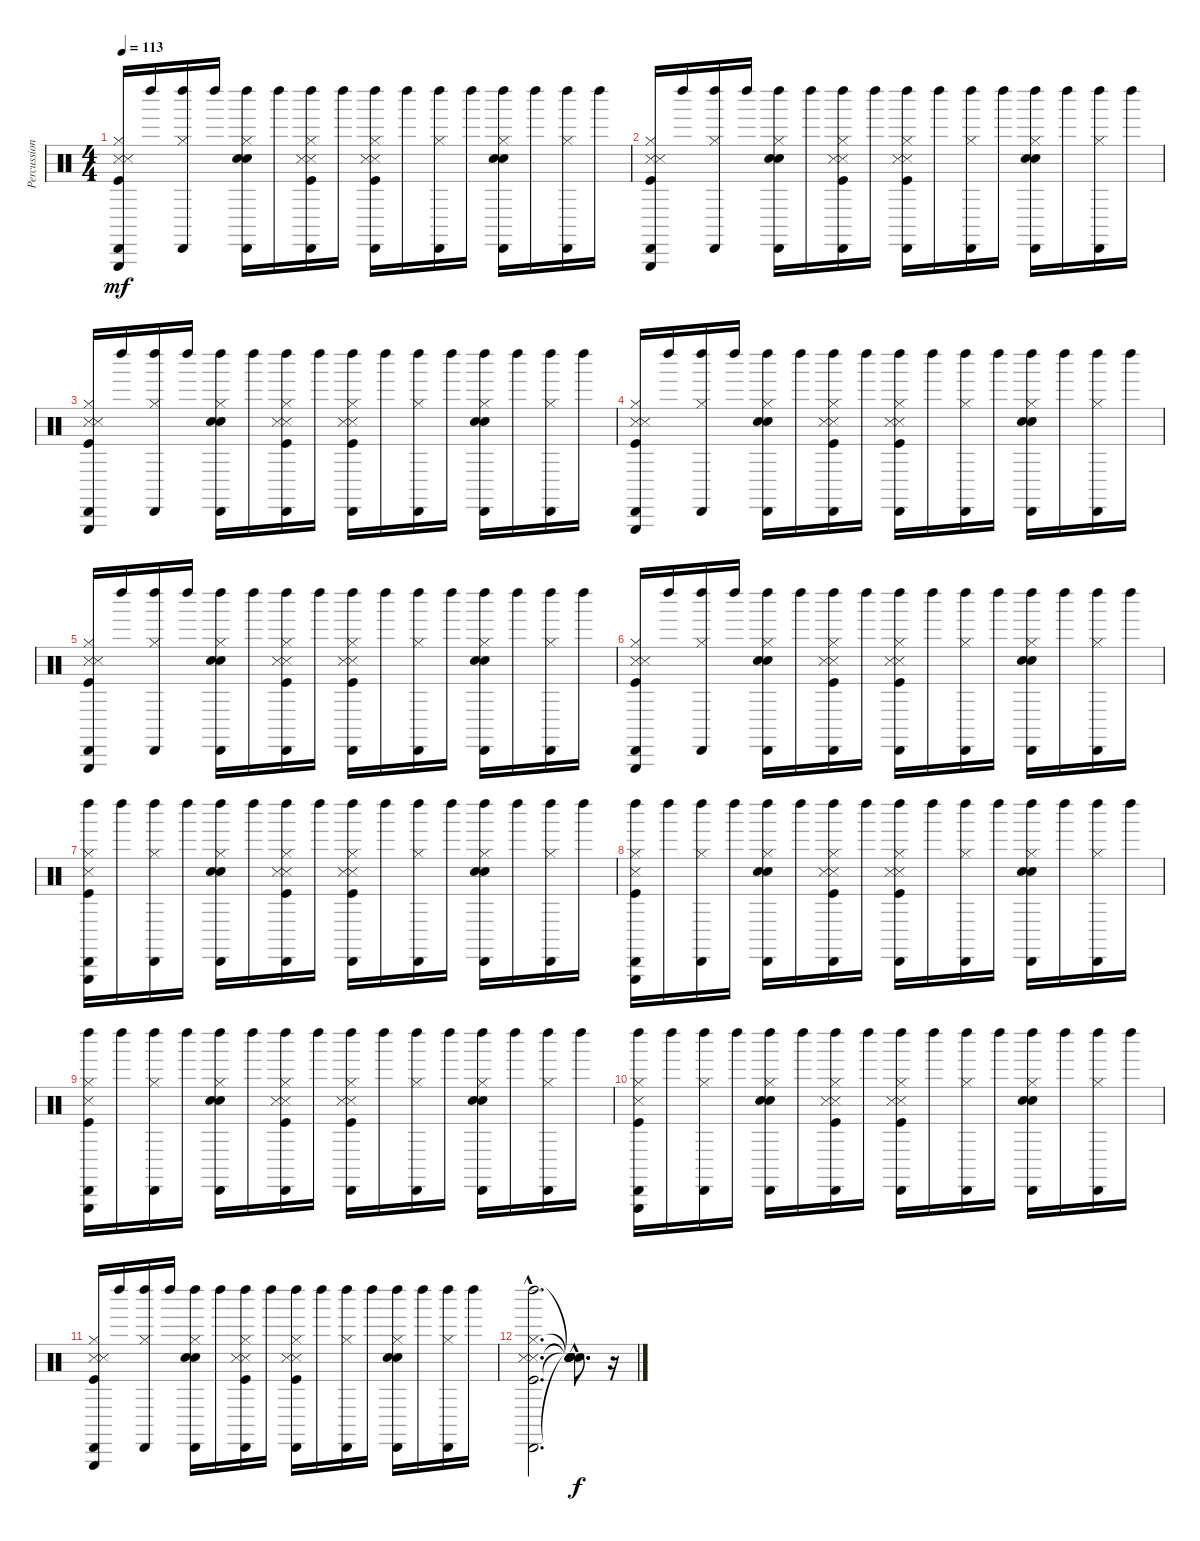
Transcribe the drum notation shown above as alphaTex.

\track ("Percussion" "Percussion") {instrument percussion}
\staff {score}
\articulation defaults
\ts (4 4)
\tempo 113
\clef neutral
\ks c
("Metronome (hit)" "Kick (hit)" "Snare (side stick) 3" "Hi-Hat (closed)" "Triangle (hit)" "Cabasa (hit)").16{dy mf} "Left Maraca (hit)".16 ("Hi-Hat (closed)" "Cabasa (hit)" "Left Maraca (hit)").16 "Left Maraca (hit)".16 ("Hand Clap (hit)" "Electric Snare (hit)" "Hi-Hat (closed)" "Cabasa (hit)" "Left Maraca (hit)").16 "Left Maraca (hit)".16 ("Snare (side stick) 3" "Kick (hit)" "Metronome (hit)" "Hi-Hat (closed)" "Cabasa (hit)" "Left Maraca (hit)").16 "Left Maraca (hit)".16 ("Metronome (hit)" "Kick (hit)" "Snare (side stick) 3" "Hi-Hat (closed)" "Cabasa (hit)" "Left Maraca (hit)").16 "Left Maraca (hit)".16 ("Hi-Hat (closed)" "Cabasa (hit)" "Left Maraca (hit)").16 "Left Maraca (hit)".16 ("Hand Clap (hit)" "Electric Snare (hit)" "Hi-Hat (closed)" "Cabasa (hit)" "Left Maraca (hit)").16 "Left Maraca (hit)".16 ("Hi-Hat (closed)" "Cabasa (hit)" "Left Maraca (hit)").16 "Left Maraca (hit)".16 |
("Metronome (hit)" "Kick (hit)" "Snare (side stick) 3" "Hi-Hat (closed)" "Triangle (hit)" "Cabasa (hit)").16 "Left Maraca (hit)".16 ("Hi-Hat (closed)" "Cabasa (hit)" "Left Maraca (hit)").16 "Left Maraca (hit)".16 ("Hand Clap (hit)" "Electric Snare (hit)" "Hi-Hat (closed)" "Cabasa (hit)" "Left Maraca (hit)").16 "Left Maraca (hit)".16 ("Snare (side stick) 3" "Kick (hit)" "Metronome (hit)" "Hi-Hat (closed)" "Cabasa (hit)" "Left Maraca (hit)").16 "Left Maraca (hit)".16 ("Metronome (hit)" "Kick (hit)" "Snare (side stick) 3" "Hi-Hat (closed)" "Cabasa (hit)" "Left Maraca (hit)").16 "Left Maraca (hit)".16 ("Hi-Hat (closed)" "Cabasa (hit)" "Left Maraca (hit)").16 "Left Maraca (hit)".16 ("Hand Clap (hit)" "Electric Snare (hit)" "Hi-Hat (closed)" "Cabasa (hit)" "Left Maraca (hit)").16 "Left Maraca (hit)".16 ("Hi-Hat (closed)" "Cabasa (hit)" "Left Maraca (hit)").16 "Left Maraca (hit)".16 |
("Metronome (hit)" "Kick (hit)" "Snare (side stick) 3" "Hi-Hat (closed)" "Triangle (hit)" "Cabasa (hit)").16 "Left Maraca (hit)".16 ("Hi-Hat (closed)" "Cabasa (hit)" "Left Maraca (hit)").16 "Left Maraca (hit)".16 ("Hand Clap (hit)" "Electric Snare (hit)" "Hi-Hat (closed)" "Cabasa (hit)" "Left Maraca (hit)").16 "Left Maraca (hit)".16 ("Snare (side stick) 3" "Kick (hit)" "Metronome (hit)" "Hi-Hat (closed)" "Cabasa (hit)" "Left Maraca (hit)").16 "Left Maraca (hit)".16 ("Metronome (hit)" "Kick (hit)" "Snare (side stick) 3" "Hi-Hat (closed)" "Cabasa (hit)" "Left Maraca (hit)").16 "Left Maraca (hit)".16 ("Hi-Hat (closed)" "Cabasa (hit)" "Left Maraca (hit)").16 "Left Maraca (hit)".16 ("Hand Clap (hit)" "Electric Snare (hit)" "Hi-Hat (closed)" "Cabasa (hit)" "Left Maraca (hit)").16 "Left Maraca (hit)".16 ("Hi-Hat (closed)" "Cabasa (hit)" "Left Maraca (hit)").16 "Left Maraca (hit)".16 |
("Metronome (hit)" "Kick (hit)" "Snare (side stick) 3" "Hi-Hat (closed)" "Triangle (hit)" "Cabasa (hit)").16 "Left Maraca (hit)".16 ("Hi-Hat (closed)" "Cabasa (hit)" "Left Maraca (hit)").16 "Left Maraca (hit)".16 ("Hand Clap (hit)" "Electric Snare (hit)" "Hi-Hat (closed)" "Cabasa (hit)" "Left Maraca (hit)").16 "Left Maraca (hit)".16 ("Snare (side stick) 3" "Kick (hit)" "Metronome (hit)" "Hi-Hat (closed)" "Cabasa (hit)" "Left Maraca (hit)").16 "Left Maraca (hit)".16 ("Metronome (hit)" "Kick (hit)" "Snare (side stick) 3" "Hi-Hat (closed)" "Cabasa (hit)" "Left Maraca (hit)").16 "Left Maraca (hit)".16 ("Hi-Hat (closed)" "Cabasa (hit)" "Left Maraca (hit)").16 "Left Maraca (hit)".16 ("Hand Clap (hit)" "Electric Snare (hit)" "Hi-Hat (closed)" "Cabasa (hit)" "Left Maraca (hit)").16 "Left Maraca (hit)".16 ("Hi-Hat (closed)" "Cabasa (hit)" "Left Maraca (hit)").16 "Left Maraca (hit)".16 |
("Metronome (hit)" "Kick (hit)" "Snare (side stick) 3" "Hi-Hat (closed)" "Triangle (hit)" "Cabasa (hit)").16 "Left Maraca (hit)".16 ("Hi-Hat (closed)" "Cabasa (hit)" "Left Maraca (hit)").16 "Left Maraca (hit)".16 ("Hand Clap (hit)" "Electric Snare (hit)" "Hi-Hat (closed)" "Cabasa (hit)" "Left Maraca (hit)").16 "Left Maraca (hit)".16 ("Snare (side stick) 3" "Kick (hit)" "Metronome (hit)" "Hi-Hat (closed)" "Cabasa (hit)" "Left Maraca (hit)").16 "Left Maraca (hit)".16 ("Metronome (hit)" "Kick (hit)" "Snare (side stick) 3" "Hi-Hat (closed)" "Cabasa (hit)" "Left Maraca (hit)").16 "Left Maraca (hit)".16 ("Hi-Hat (closed)" "Cabasa (hit)" "Left Maraca (hit)").16 "Left Maraca (hit)".16 ("Hand Clap (hit)" "Electric Snare (hit)" "Hi-Hat (closed)" "Cabasa (hit)" "Left Maraca (hit)").16 "Left Maraca (hit)".16 ("Hi-Hat (closed)" "Cabasa (hit)" "Left Maraca (hit)").16 "Left Maraca (hit)".16 |
("Metronome (hit)" "Kick (hit)" "Snare (side stick) 3" "Hi-Hat (closed)" "Triangle (hit)" "Cabasa (hit)").16 "Left Maraca (hit)".16 ("Hi-Hat (closed)" "Cabasa (hit)" "Left Maraca (hit)").16 "Left Maraca (hit)".16 ("Hand Clap (hit)" "Electric Snare (hit)" "Hi-Hat (closed)" "Cabasa (hit)" "Left Maraca (hit)").16 "Left Maraca (hit)".16 ("Snare (side stick) 3" "Kick (hit)" "Metronome (hit)" "Hi-Hat (closed)" "Cabasa (hit)" "Left Maraca (hit)").16 "Left Maraca (hit)".16 ("Metronome (hit)" "Kick (hit)" "Snare (side stick) 3" "Hi-Hat (closed)" "Cabasa (hit)" "Left Maraca (hit)").16 "Left Maraca (hit)".16 ("Hi-Hat (closed)" "Cabasa (hit)" "Left Maraca (hit)").16 "Left Maraca (hit)".16 ("Hand Clap (hit)" "Electric Snare (hit)" "Hi-Hat (closed)" "Cabasa (hit)" "Left Maraca (hit)").16 "Left Maraca (hit)".16 ("Hi-Hat (closed)" "Cabasa (hit)" "Left Maraca (hit)").16 "Left Maraca (hit)".16 |
("Left Maraca (hit)" "Cabasa (hit)" "Triangle (hit)" "Hi-Hat (closed)" "Snare (side stick) 3" "Kick (hit)").16 "Left Maraca (hit)".16 ("Left Maraca (hit)" "Cabasa (hit)" "Hi-Hat (closed)").16 "Left Maraca (hit)".16 ("Left Maraca (hit)" "Cabasa (hit)" "Hi-Hat (closed)" "Electric Snare (hit)" "Hand Clap (hit)").16 "Left Maraca (hit)".16 ("Left Maraca (hit)" "Cabasa (hit)" "Hi-Hat (closed)" "Metronome (hit)" "Kick (hit)" "Snare (side stick) 3").16 "Left Maraca (hit)".16 ("Left Maraca (hit)" "Cabasa (hit)" "Hi-Hat (closed)" "Snare (side stick) 3" "Kick (hit)" "Metronome (hit)").16 "Left Maraca (hit)".16 ("Left Maraca (hit)" "Cabasa (hit)" "Hi-Hat (closed)").16 "Left Maraca (hit)".16 ("Left Maraca (hit)" "Cabasa (hit)" "Hi-Hat (closed)" "Electric Snare (hit)" "Hand Clap (hit)").16 "Left Maraca (hit)".16 ("Left Maraca (hit)" "Cabasa (hit)" "Hi-Hat (closed)").16 "Left Maraca (hit)".16 |
("Left Maraca (hit)" "Cabasa (hit)" "Triangle (hit)" "Hi-Hat (closed)" "Snare (side stick) 3" "Kick (hit)").16 "Left Maraca (hit)".16 ("Left Maraca (hit)" "Cabasa (hit)" "Hi-Hat (closed)").16 "Left Maraca (hit)".16 ("Left Maraca (hit)" "Cabasa (hit)" "Hi-Hat (closed)" "Electric Snare (hit)" "Hand Clap (hit)").16 "Left Maraca (hit)".16 ("Left Maraca (hit)" "Cabasa (hit)" "Hi-Hat (closed)" "Metronome (hit)" "Kick (hit)" "Snare (side stick) 3").16 "Left Maraca (hit)".16 ("Left Maraca (hit)" "Cabasa (hit)" "Hi-Hat (closed)" "Snare (side stick) 3" "Kick (hit)" "Metronome (hit)").16 "Left Maraca (hit)".16 ("Left Maraca (hit)" "Cabasa (hit)" "Hi-Hat (closed)").16 "Left Maraca (hit)".16 ("Left Maraca (hit)" "Cabasa (hit)" "Hi-Hat (closed)" "Electric Snare (hit)" "Hand Clap (hit)").16 "Left Maraca (hit)".16 ("Left Maraca (hit)" "Cabasa (hit)" "Hi-Hat (closed)").16 "Left Maraca (hit)".16 |
("Left Maraca (hit)" "Cabasa (hit)" "Triangle (hit)" "Hi-Hat (closed)" "Snare (side stick) 3" "Kick (hit)").16 "Left Maraca (hit)".16 ("Left Maraca (hit)" "Cabasa (hit)" "Hi-Hat (closed)").16 "Left Maraca (hit)".16 ("Left Maraca (hit)" "Cabasa (hit)" "Hi-Hat (closed)" "Electric Snare (hit)" "Hand Clap (hit)").16 "Left Maraca (hit)".16 ("Left Maraca (hit)" "Cabasa (hit)" "Hi-Hat (closed)" "Metronome (hit)" "Kick (hit)" "Snare (side stick) 3").16 "Left Maraca (hit)".16 ("Left Maraca (hit)" "Cabasa (hit)" "Hi-Hat (closed)" "Snare (side stick) 3" "Kick (hit)" "Metronome (hit)").16 "Left Maraca (hit)".16 ("Left Maraca (hit)" "Cabasa (hit)" "Hi-Hat (closed)").16 "Left Maraca (hit)".16 ("Left Maraca (hit)" "Cabasa (hit)" "Hi-Hat (closed)" "Electric Snare (hit)" "Hand Clap (hit)").16 "Left Maraca (hit)".16 ("Left Maraca (hit)" "Cabasa (hit)" "Hi-Hat (closed)").16 "Left Maraca (hit)".16 |
("Left Maraca (hit)" "Cabasa (hit)" "Triangle (hit)" "Hi-Hat (closed)" "Snare (side stick) 3" "Kick (hit)").16 "Left Maraca (hit)".16 ("Left Maraca (hit)" "Cabasa (hit)" "Hi-Hat (closed)").16 "Left Maraca (hit)".16 ("Left Maraca (hit)" "Cabasa (hit)" "Hi-Hat (closed)" "Electric Snare (hit)" "Hand Clap (hit)").16 "Left Maraca (hit)".16 ("Left Maraca (hit)" "Cabasa (hit)" "Hi-Hat (closed)" "Metronome (hit)" "Kick (hit)" "Snare (side stick) 3").16 "Left Maraca (hit)".16 ("Left Maraca (hit)" "Cabasa (hit)" "Hi-Hat (closed)" "Snare (side stick) 3" "Kick (hit)" "Metronome (hit)").16 "Left Maraca (hit)".16 ("Left Maraca (hit)" "Cabasa (hit)" "Hi-Hat (closed)").16 "Left Maraca (hit)".16 ("Left Maraca (hit)" "Cabasa (hit)" "Hi-Hat (closed)" "Electric Snare (hit)" "Hand Clap (hit)").16 "Left Maraca (hit)".16 ("Left Maraca (hit)" "Cabasa (hit)" "Hi-Hat (closed)").16 "Left Maraca (hit)".16 |
("Metronome (hit)" "Kick (hit)" "Snare (side stick) 3" "Hi-Hat (closed)" "Triangle (hit)" "Cabasa (hit)").16 "Left Maraca (hit)".16 ("Hi-Hat (closed)" "Cabasa (hit)" "Left Maraca (hit)").16 "Left Maraca (hit)".16 ("Hand Clap (hit)" "Electric Snare (hit)" "Hi-Hat (closed)" "Cabasa (hit)" "Left Maraca (hit)").16 "Left Maraca (hit)".16 ("Snare (side stick) 3" "Kick (hit)" "Metronome (hit)" "Hi-Hat (closed)" "Cabasa (hit)" "Left Maraca (hit)").16 "Left Maraca (hit)".16 ("Metronome (hit)" "Kick (hit)" "Snare (side stick) 3" "Hi-Hat (closed)" "Cabasa (hit)" "Left Maraca (hit)").16 "Left Maraca (hit)".16 ("Hi-Hat (closed)" "Cabasa (hit)" "Left Maraca (hit)").16 "Left Maraca (hit)".16 ("Hand Clap (hit)" "Electric Snare (hit)" "Hi-Hat (closed)" "Cabasa (hit)" "Left Maraca (hit)").16 "Left Maraca (hit)".16 ("Hi-Hat (closed)" "Cabasa (hit)" "Left Maraca (hit)").16 "Left Maraca (hit)".16 |
("Cabasa (hit)"{hac} "Left Maraca (hit)"{hac} "Metronome (hit)"{hac} "Kick (hit)"{hac} "Snare (side stick) 3"{hac} "Hi-Hat (closed)"{hac}).2{d} ("Snare (hit)"{hac t} "Snare (hit)"{hac t} "Snare (hit)"{hac t} "Snare (hit)"{hac t} "Snare (hit)"{hac t} "Snare (hit)"{hac t}).8{d dy f} r.16
